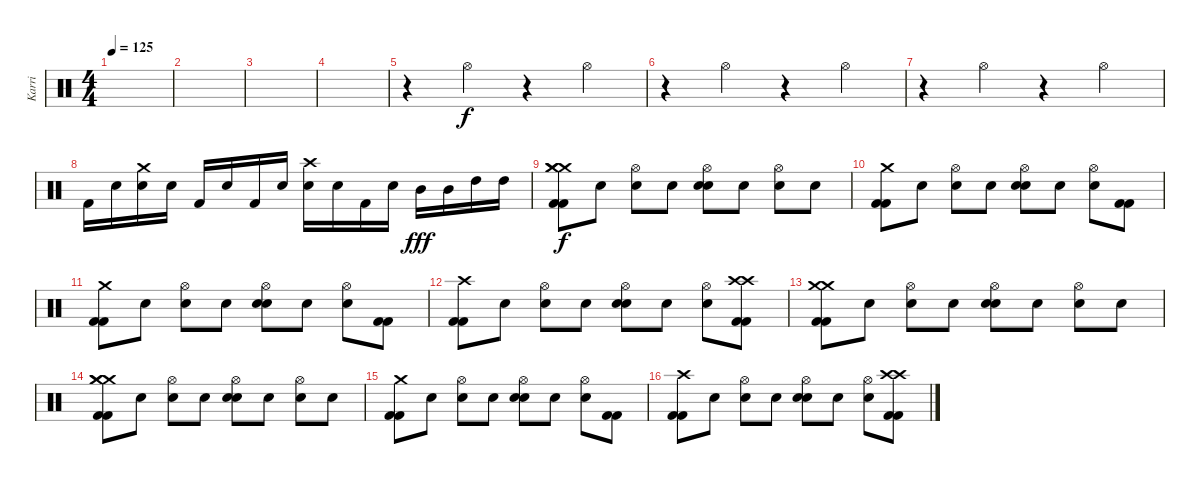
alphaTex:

\track ("Karri" "Karri") {instrument percussion}
\staff {score}
\articulation defaults
\ts (4 4)
\tempo 125
\clef neutral
\ks c
|
|
|
|
r.4 "Hi-Hat (open)".4 r.4 "Hi-Hat (open)".4 |
r.4 "Hi-Hat (open)".4 r.4 "Hi-Hat (open)".4 |
r.4 "Hi-Hat (open)".4 r.4 "Hi-Hat (open)".4 |
"Kick (hit) 2".16 "Snare (hit)"{x}.16 ("Crash medium (hit)" "Snare (hit) 2").16 "Snare (hit)"{x}.16 "Kick (hit) 2".16 "Snare (hit)"{x}.16 "Kick (hit) 2".16 "Snare (hit)"{x}.16 ("Crash high (hit)" "Snare (hit) 2").16 "Snare (hit)"{x}.16 "Kick (hit) 2".16 "Snare (hit)"{x}.16 "Mid Tom (hit)".16{dy fff} "Mid Tom (hit)".16 "High Tom (hit)".16 "High Tom (hit)".16 |
("Crash medium (hit)" "Crash medium (hit)" "Crash medium (hit)" "Kick (hit) 2" "Kick (hit) 2").8{dy f} "Snare (hit)"{x}.8 ("Hi-Hat (open)" "Snare (hit)"{x}).8 "Snare (hit)"{x}.8 ("Hi-Hat (open)" "Snare (hit) 2" "Snare (hit) 2").8 "Snare (hit)"{x}.8 ("Hi-Hat (open)" "Snare (hit)"{x}).8 "Snare (hit)"{x}.8 |
("Crash medium (hit)" "Kick (hit) 2" "Kick (hit) 2").8 "Snare (hit)"{x}.8 ("Hi-Hat (open)" "Snare (hit)"{x}).8 "Snare (hit)"{x}.8 ("Hi-Hat (open)" "Snare (hit) 2" "Snare (hit) 2").8 "Snare (hit)"{x}.8 ("Hi-Hat (open)" "Snare (hit)"{x}).8 ("Kick (hit) 2"{x} "Kick (hit) 2"{x}).8 |
("Crash medium (hit)" "Kick (hit) 2" "Kick (hit) 2").8 "Snare (hit)"{x}.8 ("Hi-Hat (open)" "Snare (hit)"{x}).8 "Snare (hit)"{x}.8 ("Hi-Hat (open)" "Snare (hit) 2" "Snare (hit) 2").8 "Snare (hit)"{x}.8 ("Hi-Hat (open)" "Snare (hit)"{x}).8 ("Kick (hit) 2"{x} "Kick (hit) 2"{x}).8 |
("Crash high (hit)" "Kick (hit) 2" "Kick (hit) 2").8 "Snare (hit)"{x}.8 ("Hi-Hat (open)" "Snare (hit)"{x}).8 "Snare (hit)"{x}.8 ("Hi-Hat (open)" "Snare (hit) 2" "Snare (hit) 2").8 "Snare (hit)"{x}.8 ("Hi-Hat (open)" "Snare (hit)"{x}).8 ("Crash high (hit)" "Crash high (hit)" "Kick (hit) 2" "Kick (hit) 2").8 |
("Crash medium (hit)" "Crash medium (hit)" "Kick (hit) 2" "Kick (hit) 2").8 "Snare (hit)"{x}.8 ("Hi-Hat (open)" "Snare (hit)"{x}).8 "Snare (hit)"{x}.8 ("Hi-Hat (open)" "Snare (hit) 2" "Snare (hit) 2").8 "Snare (hit)"{x}.8 ("Hi-Hat (open)" "Snare (hit)"{x}).8 "Snare (hit)"{x}.8 |
("Crash medium (hit)" "Crash medium (hit)" "Crash medium (hit)" "Kick (hit) 2" "Kick (hit) 2").8 "Snare (hit)"{x}.8 ("Hi-Hat (open)" "Snare (hit)"{x}).8 "Snare (hit)"{x}.8 ("Hi-Hat (open)" "Snare (hit) 2" "Snare (hit) 2").8 "Snare (hit)"{x}.8 ("Hi-Hat (open)" "Snare (hit)"{x}).8 "Snare (hit)"{x}.8 |
("Crash medium (hit)" "Kick (hit) 2" "Kick (hit) 2").8 "Snare (hit)"{x}.8 ("Hi-Hat (open)" "Snare (hit)"{x}).8 "Snare (hit)"{x}.8 ("Hi-Hat (open)" "Snare (hit) 2" "Snare (hit) 2").8 "Snare (hit)"{x}.8 ("Hi-Hat (open)" "Snare (hit)"{x}).8 ("Kick (hit) 2"{x} "Kick (hit) 2"{x}).8 |
("Crash high (hit)" "Kick (hit) 2" "Kick (hit) 2").8 "Snare (hit)"{x}.8 ("Hi-Hat (open)" "Snare (hit)"{x}).8 "Snare (hit)"{x}.8 ("Hi-Hat (open)" "Snare (hit) 2" "Snare (hit) 2").8 "Snare (hit)"{x}.8 ("Hi-Hat (open)" "Snare (hit)"{x}).8 ("Crash high (hit)" "Crash high (hit)" "Kick (hit) 2" "Kick (hit) 2").8
